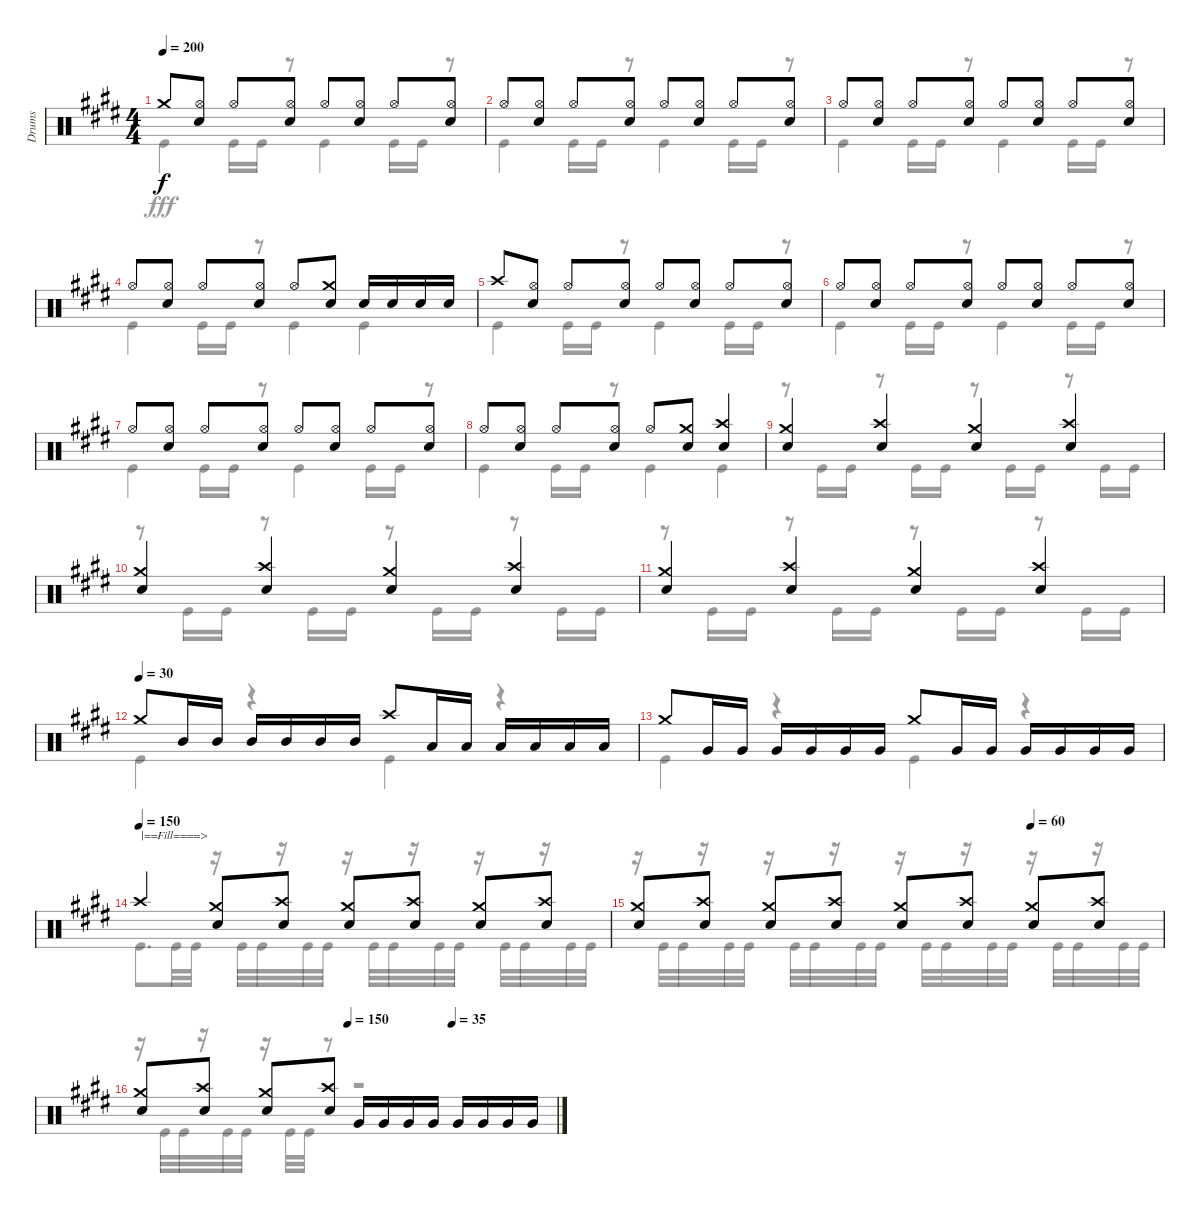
\track ("Drums" "Drums") {instrument percussion}
\staff {score}
\articulation defaults
\voice
\ts (4 4)
\tempo 200
\clef neutral
\ks e "Crash medium (hit)".8{dy f}
("Hi-Hat (open)" "Snare (hit) 2").8 "Hi-Hat (open)".8 ("Hi-Hat (open)" "Snare (hit) 2").8 "Hi-Hat (open)".8 ("Hi-Hat (open)" "Snare (hit) 2").8 "Hi-Hat (open)".8 ("Hi-Hat (open)" "Snare (hit) 2").8 |
"Hi-Hat (open)".8 ("Hi-Hat (open)" "Snare (hit) 2").8 "Hi-Hat (open)".8 ("Hi-Hat (open)" "Snare (hit) 2").8 "Hi-Hat (open)".8 ("Hi-Hat (open)" "Snare (hit) 2").8 "Hi-Hat (open)".8 ("Hi-Hat (open)" "Snare (hit) 2").8 |
"Hi-Hat (open)".8 ("Hi-Hat (open)" "Snare (hit) 2").8 "Hi-Hat (open)".8 ("Hi-Hat (open)" "Snare (hit) 2").8 "Hi-Hat (open)".8 ("Hi-Hat (open)" "Snare (hit) 2").8 "Hi-Hat (open)".8 ("Hi-Hat (open)" "Snare (hit) 2").8 |
"Hi-Hat (open)".8 ("Hi-Hat (open)" "Snare (hit) 2").8 "Hi-Hat (open)".8 ("Hi-Hat (open)" "Snare (hit) 2").8 "Hi-Hat (open)".8 ("Crash medium (hit)" "Snare (hit) 2").8 "Snare (hit) 2".16 "Snare (hit) 2".16 "Snare (hit) 2".16 "Snare (hit) 2".16 |
"Crash high (hit)".8 ("Hi-Hat (open)" "Snare (hit) 2").8 "Hi-Hat (open)".8 ("Hi-Hat (open)" "Snare (hit) 2").8 "Hi-Hat (open)".8 ("Hi-Hat (open)" "Snare (hit) 2").8 "Hi-Hat (open)".8 ("Hi-Hat (open)" "Snare (hit) 2").8 |
"Hi-Hat (open)".8 ("Hi-Hat (open)" "Snare (hit) 2").8 "Hi-Hat (open)".8 ("Hi-Hat (open)" "Snare (hit) 2").8 "Hi-Hat (open)".8 ("Hi-Hat (open)" "Snare (hit) 2").8 "Hi-Hat (open)".8 ("Hi-Hat (open)" "Snare (hit) 2").8 |
"Hi-Hat (open)".8 ("Hi-Hat (open)" "Snare (hit) 2").8 "Hi-Hat (open)".8 ("Hi-Hat (open)" "Snare (hit) 2").8 "Hi-Hat (open)".8 ("Hi-Hat (open)" "Snare (hit) 2").8 "Hi-Hat (open)".8 ("Hi-Hat (open)" "Snare (hit) 2").8 |
"Hi-Hat (open)".8 ("Hi-Hat (open)" "Snare (hit) 2").8 "Hi-Hat (open)".8 ("Hi-Hat (open)" "Snare (hit) 2").8 "Hi-Hat (open)".8 ("Crash medium (hit)" "Snare (hit) 2").8 ("Crash high (hit)" "Snare (hit) 2").4 |
("Crash medium (hit)" "Snare (hit) 2").4 ("Crash high (hit)" "Snare (hit) 2").4 ("Crash medium (hit)" "Snare (hit) 2").4 ("Crash high (hit)" "Snare (hit) 2").4 |
("Crash medium (hit)" "Snare (hit) 2").4 ("Crash high (hit)" "Snare (hit) 2").4 ("Crash medium (hit)" "Snare (hit) 2").4 ("Crash high (hit)" "Snare (hit) 2").4 |
("Crash medium (hit)" "Snare (hit) 2").4 ("Crash high (hit)" "Snare (hit) 2").4 ("Crash medium (hit)" "Snare (hit) 2").4 ("Crash high (hit)" "Snare (hit) 2").4 |
\tempo (30)
"Crash medium (hit)".8 "Mid Tom (hit)".16 "Mid Tom (hit)".16 "Mid Tom (hit)".16 "Mid Tom (hit)".16 "Mid Tom (hit)".16 "Mid Tom (hit)".16 "Crash high (hit)".8 "Low Tom (hit)".16 "Low Tom (hit)".16 "Low Tom (hit)".16 "Low Tom (hit)".16 "Low Tom (hit)".16 "Low Tom (hit)".16 |
"Crash medium (hit)".8 "Very Low Tom (hit)".16 "Very Low Tom (hit)".16 "Very Low Tom (hit)".16 "Very Low Tom (hit)".16 "Very Low Tom (hit)".16 "Very Low Tom (hit)".16 "Crash medium (hit)".8 "Very Low Tom (hit)".16 "Very Low Tom (hit)".16 "Very Low Tom (hit)".16 "Very Low Tom (hit)".16 "Very Low Tom (hit)".16 "Very Low Tom (hit)".16 |
\tempo (150)
"Crash high (hit)".4{txt "|==Fill====>"} ("Crash medium (hit)" "Snare (hit) 2").8 ("Crash high (hit)" "Snare (hit) 2").8 ("Crash medium (hit)" "Snare (hit) 2").8 ("Crash high (hit)" "Snare (hit) 2").8 ("Crash medium (hit)" "Snare (hit) 2").8 ("Crash high (hit)" "Snare (hit) 2").8 |
\tempo (60 0.75)
("Crash medium (hit)" "Snare (hit) 2").8 ("Crash high (hit)" "Snare (hit) 2").8 ("Crash medium (hit)" "Snare (hit) 2").8 ("Crash high (hit)" "Snare (hit) 2").8 ("Crash medium (hit)" "Snare (hit) 2").8 ("Crash high (hit)" "Snare (hit) 2").8 ("Crash medium (hit)" "Snare (hit) 2").8 ("Crash high (hit)" "Snare (hit) 2").8 |
\tempo (150 0.5)
\tempo (35 0.75)
("Crash medium (hit)" "Snare (hit) 2").8 ("Crash high (hit)" "Snare (hit) 2").8 ("Crash medium (hit)" "Snare (hit) 2").8 ("Crash high (hit)" "Snare (hit) 2").8 "Very Low Tom (hit)".16 "Very Low Tom (hit)".16 "Very Low Tom (hit)".16 "Very Low Tom (hit)".16 "Very Low Tom (hit)".16 "Very Low Tom (hit)".16 "Very Low Tom (hit)".16 "Very Low Tom (hit)".16
\voice
\clef neutral
\ottava regular
\simile none
\ks e "Kick (hit)".4{dy fff} "Kick (hit)".16 "Kick (hit)".16
r.8 "Kick (hit)".4 "Kick (hit)".16 "Kick (hit)".16 r.8 |
"Kick (hit)".4 "Kick (hit)".16 "Kick (hit)".16 r.8 "Kick (hit)".4 "Kick (hit)".16 "Kick (hit)".16 r.8 |
"Kick (hit)".4 "Kick (hit)".16 "Kick (hit)".16 r.8 "Kick (hit)".4 "Kick (hit)".16 "Kick (hit)".16 r.8 |
"Kick (hit)".4 "Kick (hit)".16 "Kick (hit)".16 r.8 "Kick (hit)".4 "Kick (hit)".4 |
"Kick (hit)".4 "Kick (hit)".16 "Kick (hit)".16 r.8 "Kick (hit)".4 "Kick (hit)".16 "Kick (hit)".16 r.8 |
"Kick (hit)".4 "Kick (hit)".16 "Kick (hit)".16 r.8 "Kick (hit)".4 "Kick (hit)".16 "Kick (hit)".16 r.8 |
"Kick (hit)".4 "Kick (hit)".16 "Kick (hit)".16 r.8 "Kick (hit)".4 "Kick (hit)".16 "Kick (hit)".16 r.8 |
"Kick (hit)".4 "Kick (hit)".16 "Kick (hit)".16 r.8 "Kick (hit)".4 "Kick (hit)".4 |
r.8 "Kick (hit)".16 "Kick (hit)".16 r.8 "Kick (hit)".16 "Kick (hit)".16 r.8 "Kick (hit)".16 "Kick (hit)".16 r.8 "Kick (hit)".16 "Kick (hit)".16 |
r.8 "Kick (hit)".16 "Kick (hit)".16 r.8 "Kick (hit)".16 "Kick (hit)".16 r.8 "Kick (hit)".16 "Kick (hit)".16 r.8 "Kick (hit)".16 "Kick (hit)".16 |
r.8 "Kick (hit)".16 "Kick (hit)".16 r.8 "Kick (hit)".16 "Kick (hit)".16 r.8 "Kick (hit)".16 "Kick (hit)".16 r.8 "Kick (hit)".16 "Kick (hit)".16 |
"Kick (hit)".4 r.4 "Kick (hit)".4 r.4 |
"Kick (hit)".4 r.4 "Kick (hit)".4 r.4 |
"Kick (hit)".8{d} "Kick (hit)".32 "Kick (hit)".32 r.16 "Kick (hit)".32 "Kick (hit)".32 r.16 "Kick (hit)".32 "Kick (hit)".32 r.16 "Kick (hit)".32 "Kick (hit)".32 r.16 "Kick (hit)".32 "Kick (hit)".32 r.16 "Kick (hit)".32 "Kick (hit)".32 r.16 "Kick (hit)".32 "Kick (hit)".32 |
r.16 "Kick (hit)".32 "Kick (hit)".32 r.16 "Kick (hit)".32 "Kick (hit)".32 r.16 "Kick (hit)".32 "Kick (hit)".32 r.16 "Kick (hit)".32 "Kick (hit)".32 r.16 "Kick (hit)".32 "Kick (hit)".32 r.16 "Kick (hit)".32 "Kick (hit)".32 r.16 "Kick (hit)".32 "Kick (hit)".32 r.16 "Kick (hit)".32 "Kick (hit)".32 |
r.16 "Kick (hit)".32 "Kick (hit)".32 r.16 "Kick (hit)".32 "Kick (hit)".32 r.16 "Kick (hit)".32 "Kick (hit)".32 r.8 r.2
